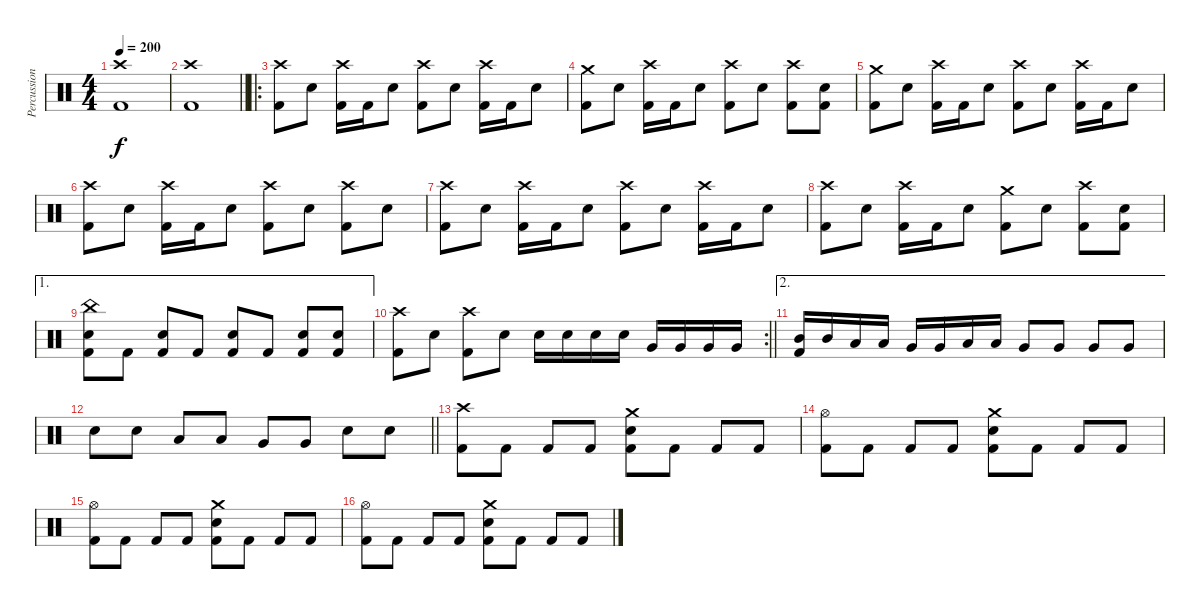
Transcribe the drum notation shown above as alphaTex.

\track ("Percussion" "Percussion") {instrument percussion}
\staff {score}
\articulation defaults
\ts (4 4)
\tempo 200
\clef neutral
\ks c
("Crash high (hit)" "Kick (hit) 2").1{dy f} |
\barLineRight lightlight
("Crash high (hit)" "Kick (hit) 2").1 |
\ro
\section ("" "")
("Crash high (hit)" "Kick (hit) 2").8 "Electric Snare (hit)".8 ("Crash high (hit)" "Kick (hit) 2").16 "Kick (hit) 2".16 "Electric Snare (hit)".8 ("Crash high (hit)" "Kick (hit) 2").8 "Electric Snare (hit)".8 ("Crash high (hit)" "Kick (hit) 2").16 "Kick (hit) 2".16 "Electric Snare (hit)".8 |
("Crash medium (hit)" "Kick (hit) 2").8 "Electric Snare (hit)".8 ("Crash high (hit)" "Kick (hit) 2").16 "Kick (hit) 2".16 "Electric Snare (hit)".8 ("Crash high (hit)" "Kick (hit) 2").8 "Electric Snare (hit)".8 ("Crash high (hit)" "Kick (hit) 2").8 ("Electric Snare (hit)" "Kick (hit) 2").8 |
("Crash medium (hit)" "Kick (hit) 2").8 "Electric Snare (hit)".8 ("Crash high (hit)" "Kick (hit) 2").16 "Kick (hit) 2".16 "Electric Snare (hit)".8 ("Crash high (hit)" "Kick (hit) 2").8 "Electric Snare (hit)".8 ("Crash high (hit)" "Kick (hit) 2").16 "Kick (hit) 2".16 "Electric Snare (hit)".8 |
("Crash high (hit)" "Kick (hit) 2").8 "Electric Snare (hit)".8 ("Crash high (hit)" "Kick (hit) 2").16 "Kick (hit) 2".16 "Electric Snare (hit)".8 ("Crash high (hit)" "Kick (hit) 2").8 "Electric Snare (hit)".8 ("Crash high (hit)" "Kick (hit) 2").8 "Electric Snare (hit)".8 |
("Crash high (hit)" "Kick (hit) 2").8 "Electric Snare (hit)".8 ("Crash high (hit)" "Kick (hit) 2").16 "Kick (hit) 2".16 "Electric Snare (hit)".8 ("Crash high (hit)" "Kick (hit) 2").8 "Electric Snare (hit)".8 ("Crash high (hit)" "Kick (hit) 2").16 "Kick (hit) 2".16 "Electric Snare (hit)".8 |
("Crash high (hit)" "Kick (hit) 2").8 "Electric Snare (hit)".8 ("Crash high (hit)" "Kick (hit) 2").16 "Kick (hit) 2".16 "Electric Snare (hit)".8 ("Crash medium (hit)" "Kick (hit) 2").8 "Electric Snare (hit)".8 ("Crash high (hit)" "Kick (hit) 2").8 ("Electric Snare (hit)" "Kick (hit) 2").8 |
\ae 1
("China (hit)" "Electric Snare (hit)" "Kick (hit) 2").8 "Kick (hit) 2".8 ("Electric Snare (hit)" "Kick (hit) 2").8 "Kick (hit) 2".8 ("Electric Snare (hit)" "Kick (hit) 2").8 "Kick (hit) 2".8 ("Electric Snare (hit)" "Kick (hit) 2").8 ("Electric Snare (hit)" "Kick (hit) 2").8 |
\rc 2
\barLineRight lightlight
("Crash high (hit)" "Kick (hit) 2").8 "Electric Snare (hit)".8 ("Crash high (hit)" "Kick (hit) 2").8 "Electric Snare (hit)".8 "Electric Snare (hit)".16 "Electric Snare (hit)".16 "Electric Snare (hit)".16 "Electric Snare (hit)".16 "Very Low Tom (hit)".16 "Very Low Tom (hit)".16 "Very Low Tom (hit)".16 "Very Low Tom (hit)".16 |
\ae 2
("Mid Tom (hit)" "Kick (hit) 2").16 "Mid Tom (hit)".16 "Low Tom (hit)".16 "Low Tom (hit)".16 "Very Low Tom (hit)".16 "Very Low Tom (hit)".16 "Low Floor Tom (hit)".16 "Low Floor Tom (hit)".16 "Very Low Tom (hit)".8 "Very Low Tom (hit)".8 "Very Low Tom (hit)".8 "Very Low Tom (hit)".8 |
\barLineRight lightlight "Electric Snare (hit)".8 "Electric Snare (hit)".8 "Low Tom (hit)".8 "Low Tom (hit)".8 "Very Low Tom (hit)".8 "Very Low Tom (hit)".8 "Electric Snare (hit)".8 "Electric Snare (hit)".8
|
\section ("" "")
("Crash high (hit)" "Kick (hit) 2").8 "Kick (hit) 2".8 "Kick (hit) 2".8 "Kick (hit) 2".8 ("Crash medium (hit)" "Electric Snare (hit)" "Kick (hit) 2").8 "Kick (hit) 2".8 "Kick (hit) 2".8 "Kick (hit) 2".8 |
("Hi-Hat (open)" "Kick (hit) 2").8 "Kick (hit) 2".8 "Kick (hit) 2".8 "Kick (hit) 2".8 ("Crash medium (hit)" "Electric Snare (hit)" "Kick (hit) 2").8 "Kick (hit) 2".8 "Kick (hit) 2".8 "Kick (hit) 2".8 |
("Hi-Hat (open)" "Kick (hit) 2").8 "Kick (hit) 2".8 "Kick (hit) 2".8 "Kick (hit) 2".8 ("Crash medium (hit)" "Electric Snare (hit)" "Kick (hit) 2").8 "Kick (hit) 2".8 "Kick (hit) 2".8 "Kick (hit) 2".8 |
("Hi-Hat (open)" "Kick (hit) 2").8 "Kick (hit) 2".8 "Kick (hit) 2".8 "Kick (hit) 2".8 ("Crash medium (hit)" "Electric Snare (hit)" "Kick (hit) 2").8 "Kick (hit) 2".8 "Kick (hit) 2".8 "Kick (hit) 2".8
